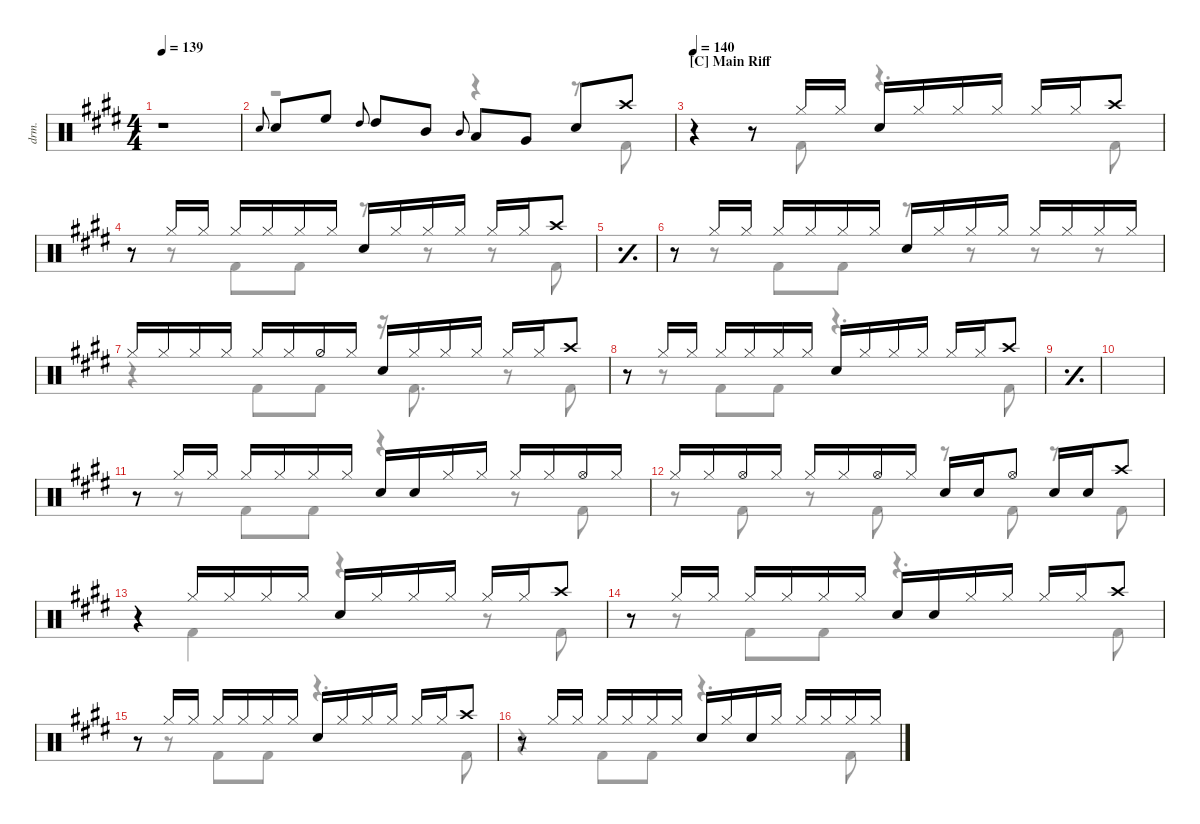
\defaultSystemsLayout 4
\hideDynamics
\bracketExtendMode nobrackets
\track ("Drums" "drm.") {instrument percussion}
\staff {score}
\articulation defaults
\voice
\ts (4 4)
\tempo 139
\clef neutral
\ks e
r.1{dy mf} |
"Snare (hit) 2"{acc forcenatural}.8{gr onbeat} "Snare (hit) 2"{acc forcenatural}.8 "High Floor Tom (hit)"{acc forcenatural}.8 "High Tom (hit)"{acc forcenatural}.8{gr onbeat} "High Tom (hit)"{acc forcenatural}.8 "Mid Tom (hit)"{acc forcenatural}.8 "Mid Tom (hit)"{acc forcenatural}.8{gr onbeat} "Low Tom (hit)"{acc forcenatural}.8 "Very Low Tom (hit)"{acc forcenatural}.8 "Snare (hit) 2"{acc forcenatural}.8 "Crash high (hit)"{acc forcenatural}.8 |
\section ("C" "Main Riff")
\tempo 140
r.4 r.8 "Hi-Hat (closed)"{acc forcenatural}.16 "Hi-Hat (closed)"{acc forcenatural}.16 "Snare (hit) 2"{acc forcenatural}.16 "Hi-Hat (closed)"{acc forcenatural}.16 "Hi-Hat (closed)"{acc forcenatural}.16 "Hi-Hat (closed)"{acc forcenatural}.16 "Hi-Hat (closed)"{acc forcenatural}.16 "Hi-Hat (closed)"{acc forcenatural}.16 "Crash high (hit)"{acc forcenatural}.8 |
r.8 "Hi-Hat (closed)"{acc forcenatural}.16 "Hi-Hat (closed)"{acc forcenatural}.16 "Hi-Hat (closed)"{acc forcenatural}.16 "Hi-Hat (closed)"{acc forcenatural}.16 "Hi-Hat (closed)"{acc forcenatural}.16 "Hi-Hat (closed)"{acc forcenatural}.16 "Snare (hit) 2"{acc forcenatural}.16 "Hi-Hat (closed)"{acc forcenatural}.16 "Hi-Hat (closed)"{acc forcenatural}.16 "Hi-Hat (closed)"{acc forcenatural}.16 "Hi-Hat (closed)"{acc forcenatural}.16 "Hi-Hat (closed)"{acc forcenatural}.16 "Crash high (hit)"{acc forcenatural}.8 |
\simile simple
|
\simile none
r.8 "Hi-Hat (closed)"{acc forcenatural}.16 "Hi-Hat (closed)"{acc forcenatural}.16 "Hi-Hat (closed)"{acc forcenatural}.16 "Hi-Hat (closed)"{acc forcenatural}.16 "Hi-Hat (closed)"{acc forcenatural}.16 "Hi-Hat (closed)"{acc forcenatural}.16 "Snare (hit) 2"{acc forcenatural}.16 "Hi-Hat (closed)"{acc forcenatural}.16 "Hi-Hat (closed)"{acc forcenatural}.16 "Hi-Hat (closed)"{acc forcenatural}.16 "Hi-Hat (closed)"{acc forcenatural}.16 "Hi-Hat (closed)"{acc forcenatural}.16 "Hi-Hat (closed)"{acc forcenatural}.16 "Hi-Hat (closed)"{acc forcenatural}.16 |
"Hi-Hat (closed)"{acc forcenatural}.16 "Hi-Hat (closed)"{acc forcenatural}.16 "Hi-Hat (closed)"{acc forcenatural}.16 "Hi-Hat (closed)"{acc forcenatural}.16 "Hi-Hat (closed)"{acc forcenatural}.16 "Hi-Hat (closed)"{acc forcenatural}.16 "Hi-Hat (half)"{acc forcenatural}.16 "Hi-Hat (closed)"{acc forcenatural}.16 "Snare (hit) 2"{acc forcenatural}.16 "Hi-Hat (closed)"{acc forcenatural}.16 "Hi-Hat (closed)"{acc forcenatural}.16 "Hi-Hat (closed)"{acc forcenatural}.16 "Hi-Hat (closed)"{acc forcenatural}.16 "Hi-Hat (closed)"{acc forcenatural}.16 "Crash high (hit)"{acc forcenatural}.8 |
r.8 "Hi-Hat (closed)"{acc forcenatural}.16 "Hi-Hat (closed)"{acc forcenatural}.16 "Hi-Hat (closed)"{acc forcenatural}.16 "Hi-Hat (closed)"{acc forcenatural}.16 "Hi-Hat (closed)"{acc forcenatural}.16 "Hi-Hat (closed)"{acc forcenatural}.16 "Snare (hit) 2"{acc forcenatural}.16 "Hi-Hat (closed)"{acc forcenatural}.16 "Hi-Hat (closed)"{acc forcenatural}.16 "Hi-Hat (closed)"{acc forcenatural}.16 "Hi-Hat (closed)"{acc forcenatural}.16 "Hi-Hat (closed)"{acc forcenatural}.16 "Crash high (hit)"{acc forcenatural}.8 |
\simile simple
|
|
\simile none
r.8 "Hi-Hat (closed)"{acc forcenatural}.16 "Hi-Hat (closed)"{acc forcenatural}.16 "Hi-Hat (closed)"{acc forcenatural}.16 "Hi-Hat (closed)"{acc forcenatural}.16 "Hi-Hat (closed)"{acc forcenatural}.16 "Hi-Hat (closed)"{acc forcenatural}.16 "Snare (hit) 2"{acc forcenatural}.16 "Snare (hit) 2"{acc forcenatural}.16 "Hi-Hat (closed)"{acc forcenatural}.16 "Hi-Hat (closed)"{acc forcenatural}.16 "Hi-Hat (closed)"{acc forcenatural}.16 "Hi-Hat (closed)"{acc forcenatural}.16 "Hi-Hat (open)"{acc forcenatural}.16 "Hi-Hat (closed)"{acc forcenatural}.16 |
"Hi-Hat (closed)"{acc forcenatural}.16 "Hi-Hat (closed)"{acc forcenatural}.16 "Hi-Hat (open)"{acc forcenatural}.16 "Hi-Hat (closed)"{acc forcenatural}.16 "Hi-Hat (closed)"{acc forcenatural}.16 "Hi-Hat (closed)"{acc forcenatural}.16 "Hi-Hat (open)"{acc forcenatural}.16 "Hi-Hat (closed)"{acc forcenatural}.16 "Snare (hit) 2"{acc forcenatural}.16 "Snare (hit) 2"{acc forcenatural}.16 "Hi-Hat (open)"{acc forcenatural}.8 "Snare (hit) 2"{acc forcenatural}.16 "Snare (hit) 2"{acc forcenatural}.16 "Crash high (hit)"{acc forcenatural}.8 |
r.4 "Hi-Hat (closed)"{acc forcenatural}.16 "Hi-Hat (closed)"{acc forcenatural}.16 "Hi-Hat (closed)"{acc forcenatural}.16 "Hi-Hat (closed)"{acc forcenatural}.16 "Snare (hit) 2"{acc forcenatural}.16 "Hi-Hat (closed)"{acc forcenatural}.16 "Hi-Hat (closed)"{acc forcenatural}.16 "Hi-Hat (closed)"{acc forcenatural}.16 "Hi-Hat (closed)"{acc forcenatural}.16 "Hi-Hat (closed)"{acc forcenatural}.16 "Crash high (hit)"{acc forcenatural}.8 |
r.8 "Hi-Hat (closed)"{acc forcenatural}.16 "Hi-Hat (closed)"{acc forcenatural}.16 "Hi-Hat (closed)"{acc forcenatural}.16 "Hi-Hat (closed)"{acc forcenatural}.16 "Hi-Hat (closed)"{acc forcenatural}.16 "Hi-Hat (closed)"{acc forcenatural}.16 "Snare (hit) 2"{acc forcenatural}.16 "Snare (hit) 2"{acc forcenatural}.16 "Hi-Hat (closed)"{acc forcenatural}.16 "Hi-Hat (closed)"{acc forcenatural}.16 "Hi-Hat (closed)"{acc forcenatural}.16 "Hi-Hat (closed)"{acc forcenatural}.16 "Crash high (hit)"{acc forcenatural}.8 |
r.8 "Hi-Hat (closed)"{acc forcenatural}.16 "Hi-Hat (closed)"{acc forcenatural}.16 "Hi-Hat (closed)"{acc forcenatural}.16 "Hi-Hat (closed)"{acc forcenatural}.16 "Hi-Hat (closed)"{acc forcenatural}.16 "Hi-Hat (closed)"{acc forcenatural}.16 "Snare (hit) 2"{acc forcenatural}.16 "Hi-Hat (closed)"{acc forcenatural}.16 "Hi-Hat (closed)"{acc forcenatural}.16 "Hi-Hat (closed)"{acc forcenatural}.16 "Hi-Hat (closed)"{acc forcenatural}.16 "Hi-Hat (closed)"{acc forcenatural}.16 "Crash high (hit)"{acc forcenatural}.8 |
r.8 "Hi-Hat (closed)"{acc forcenatural}.16 "Hi-Hat (closed)"{acc forcenatural}.16 "Hi-Hat (closed)"{acc forcenatural}.16 "Hi-Hat (closed)"{acc forcenatural}.16 "Hi-Hat (closed)"{acc forcenatural}.16 "Hi-Hat (closed)"{acc forcenatural}.16 "Snare (hit) 2"{acc forcenatural}.16 "Hi-Hat (closed)"{acc forcenatural}.16 "Snare (hit) 2"{acc forcenatural}.16 "Hi-Hat (closed)"{acc forcenatural}.16 "Hi-Hat (closed)"{acc forcenatural}.16 "Hi-Hat (closed)"{acc forcenatural}.16 "Hi-Hat (closed)"{acc forcenatural}.16 "Hi-Hat (closed)"{acc forcenatural}.16
\voice
\clef neutral
\ottava regular
\simile none
\ks e
r.1{dy mf} |
r.2 r.4 r.8 "Kick (hit) 2"{acc forcenatural}.8 |
r.4 r.8 "Kick (hit) 2"{acc forcenatural}.8 r.4{d} "Kick (hit) 2"{acc forcenatural}.8 |
r.8 r.8 "Kick (hit) 2"{acc forcenatural}.8 "Kick (hit) 2"{acc forcenatural}.8 r.8 r.8 r.8 "Kick (hit) 2"{acc forcenatural}.8 |
\simile simple
|
\simile none
r.8 r.8 "Kick (hit) 2"{acc forcenatural}.8 "Kick (hit) 2"{acc forcenatural}.8 r.8 r.8 r.8 r.8 |
r.4 "Kick (hit) 2"{acc forcenatural}.8 "Kick (hit) 2"{acc forcenatural}.8 r.16 "Kick (hit) 2"{acc forcenatural}.8{d} r.8 "Kick (hit) 2"{acc forcenatural}.8 |
r.8 r.8 "Kick (hit) 2"{acc forcenatural}.8 "Kick (hit) 2"{acc forcenatural}.8 r.4{d} "Kick (hit) 2"{acc forcenatural}.8 |
\simile simple
|
|
\simile none
r.8 r.8 "Kick (hit) 2"{acc forcenatural}.8 "Kick (hit) 2"{acc forcenatural}.8 r.4 r.8 "Kick (hit) 2"{acc forcenatural}.8 |
r.8 "Kick (hit) 2"{acc forcenatural}.8 r.8 "Kick (hit) 2"{acc forcenatural}.8 r.8 "Kick (hit) 2"{acc forcenatural}.8 r.8 "Kick (hit) 2"{acc forcenatural}.8 |
r.4 "Kick (hit) 2"{acc forcenatural}.4 r.4 r.8 "Kick (hit) 2"{acc forcenatural}.8 |
r.8 r.8 "Kick (hit) 2"{acc forcenatural}.8 "Kick (hit) 2"{acc forcenatural}.8 r.4{d} "Kick (hit) 2"{acc forcenatural}.8 |
r.8 r.8 "Kick (hit) 2"{acc forcenatural}.8 "Kick (hit) 2"{acc forcenatural}.8 r.4{d} "Kick (hit) 2"{acc forcenatural}.8 |
r.4 "Kick (hit) 2"{acc forcenatural}.8 "Kick (hit) 2"{acc forcenatural}.8 r.4{d} "Kick (hit) 2"{acc forcenatural}.8
